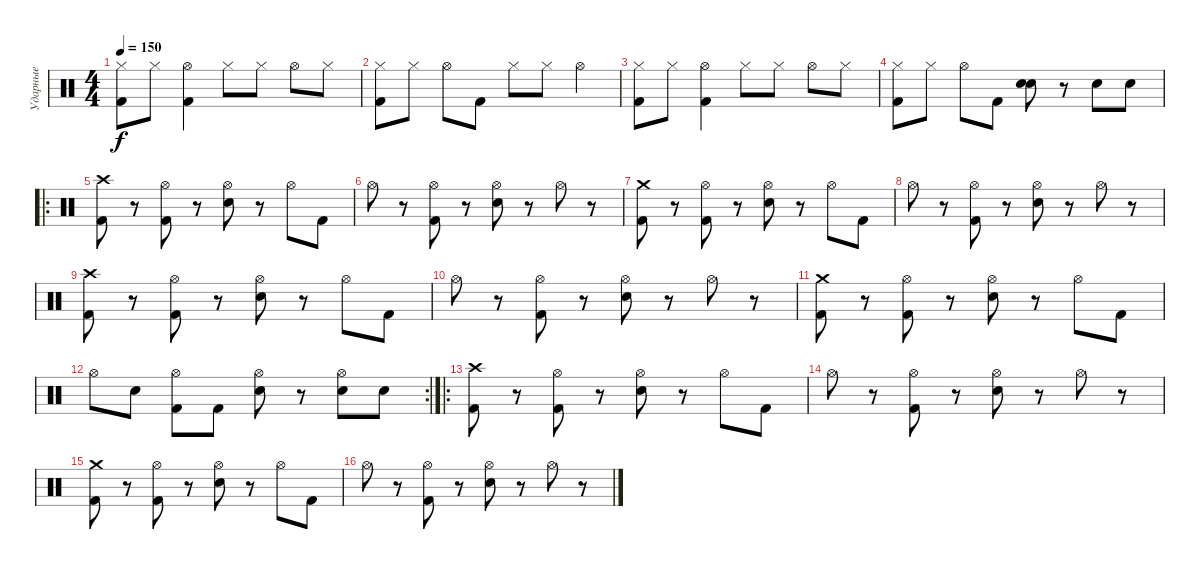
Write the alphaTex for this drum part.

\track ("Ударные" "Ударные") {instrument percussion}
\staff {score}
\articulation defaults
\ts (4 4)
\tempo 150
\clef neutral
\ks c
("Hi-Hat (closed)" "Kick (hit) 2").8{dy f} "Hi-Hat (closed)".8 ("Hi-Hat (open)" "Kick (hit) 2").4 "Hi-Hat (closed)".8 "Hi-Hat (closed)".8 "Hi-Hat (open)".8 "Hi-Hat (closed)".8 |
("Hi-Hat (closed)" "Kick (hit) 2").8 "Hi-Hat (closed)".8 "Hi-Hat (open)".8 "Kick (hit) 2".8 "Hi-Hat (closed)".8 "Hi-Hat (closed)".8 "Hi-Hat (open)".4 |
("Hi-Hat (closed)" "Kick (hit) 2").8 "Hi-Hat (closed)".8 ("Hi-Hat (open)" "Kick (hit) 2").4 "Hi-Hat (closed)".8 "Hi-Hat (closed)".8 "Hi-Hat (open)".8 "Hi-Hat (closed)".8 |
("Hi-Hat (closed)" "Kick (hit) 2").8 "Hi-Hat (closed)".8 "Hi-Hat (open)".8 "Kick (hit) 2".8 ("Snare (hit) 2" "Snare (hit) 2").8{bd 480} r.8 "Snare (hit) 2".8 "Snare (hit) 2".8 |
\ro
("Crash high (hit)" "Kick (hit) 2").8 r.8 ("Hi-Hat (open)" "Kick (hit) 2").8 r.8 ("Hi-Hat (open)" "Snare (hit) 2").8 r.8 "Hi-Hat (open)".8 "Kick (hit) 2".8 |
"Hi-Hat (open)".8 r.8 ("Hi-Hat (open)" "Kick (hit) 2").8 r.8 ("Hi-Hat (open)" "Snare (hit) 2").8 r.8 "Hi-Hat (open)".8 r.8 |
("Crash medium (hit)" "Kick (hit) 2").8 r.8 ("Hi-Hat (open)" "Kick (hit) 2").8 r.8 ("Hi-Hat (open)" "Snare (hit) 2").8 r.8 "Hi-Hat (open)".8 "Kick (hit) 2".8 |
"Hi-Hat (open)".8 r.8 ("Hi-Hat (open)" "Kick (hit) 2").8 r.8 ("Hi-Hat (open)" "Snare (hit) 2").8 r.8 "Hi-Hat (open)".8 r.8 |
("Crash high (hit)" "Kick (hit) 2").8 r.8 ("Hi-Hat (open)" "Kick (hit) 2").8 r.8 ("Hi-Hat (open)" "Snare (hit) 2").8 r.8 "Hi-Hat (open)".8 "Kick (hit) 2".8 |
"Hi-Hat (open)".8 r.8 ("Hi-Hat (open)" "Kick (hit) 2").8 r.8 ("Hi-Hat (open)" "Snare (hit) 2").8 r.8 "Hi-Hat (open)".8 r.8 |
("Crash medium (hit)" "Kick (hit) 2").8 r.8 ("Hi-Hat (open)" "Kick (hit) 2").8 r.8 ("Hi-Hat (open)" "Snare (hit) 2").8 r.8 "Hi-Hat (open)".8 "Kick (hit) 2".8 |
\rc 2 "Hi-Hat (open)".8 "Snare (hit) 2".8
("Hi-Hat (open)" "Kick (hit) 2").8 "Kick (hit) 2".8 ("Hi-Hat (open)" "Snare (hit) 2").8 r.8 ("Hi-Hat (open)" "Snare (hit) 2").8 "Snare (hit) 2".8 |
\ro
("Crash high (hit)" "Kick (hit) 2").8 r.8 ("Hi-Hat (open)" "Kick (hit) 2").8 r.8 ("Hi-Hat (open)" "Snare (hit) 2").8 r.8 "Hi-Hat (open)".8 "Kick (hit) 2".8 |
"Hi-Hat (open)".8 r.8 ("Hi-Hat (open)" "Kick (hit) 2").8 r.8 ("Hi-Hat (open)" "Snare (hit) 2").8 r.8 "Hi-Hat (open)".8 r.8 |
("Crash medium (hit)" "Kick (hit) 2").8 r.8 ("Hi-Hat (open)" "Kick (hit) 2").8 r.8 ("Hi-Hat (open)" "Snare (hit) 2").8 r.8 "Hi-Hat (open)".8 "Kick (hit) 2".8 |
"Hi-Hat (open)".8 r.8 ("Hi-Hat (open)" "Kick (hit) 2").8 r.8 ("Hi-Hat (open)" "Snare (hit) 2").8 r.8 "Hi-Hat (open)".8 r.8
